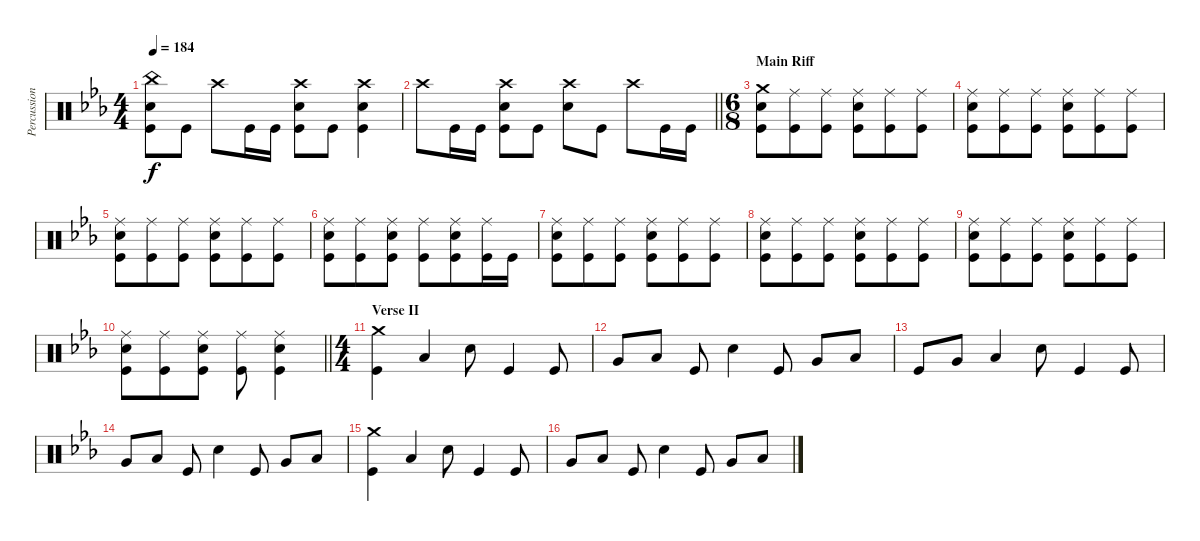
\track ("Percussion" "Percussion") {instrument percussion}
\staff {score}
\articulation defaults
\ts (4 4)
\tempo 184
\clef neutral
\ks eb
("China (hit)" "Electric Snare (hit)" "Kick (hit)").8{dy f} "Kick (hit)".8 "Crash high (hit)".8 "Kick (hit)".16 "Kick (hit)".16 ("Crash high (hit)" "Electric Snare (hit)" "Kick (hit)").8 "Kick (hit)".8 ("Crash high (hit)" "Electric Snare (hit)" "Kick (hit)").4 |
\barLineRight lightlight "Crash high (hit)".8 "Kick (hit)".16 "Kick (hit)".16
("Crash high (hit)" "Electric Snare (hit)" "Kick (hit)").8 "Kick (hit)".8 ("Crash high (hit)" "Electric Snare (hit)").8 "Kick (hit)".8 "Crash high (hit)".8 "Kick (hit)".16 "Kick (hit)".16 |
\ts (6 8)
\section ("" "Main Riff")
("Crash medium (hit)" "Electric Snare (hit)" "Kick (hit)").8 ("Ride (middle)" "Kick (hit)").8 ("Ride (middle)" "Kick (hit)").8 ("Ride (middle)" "Electric Snare (hit)" "Kick (hit)").8 ("Ride (middle)" "Kick (hit)").8 ("Ride (middle)" "Kick (hit)").8 |
("Ride (middle)" "Electric Snare (hit)" "Kick (hit)").8 ("Ride (middle)" "Kick (hit)").8 ("Ride (middle)" "Kick (hit)").8 ("Ride (middle)" "Electric Snare (hit)" "Kick (hit)").8 ("Ride (middle)" "Kick (hit)").8 ("Ride (middle)" "Kick (hit)").8 |
("Ride (middle)" "Electric Snare (hit)" "Kick (hit)").8 ("Ride (middle)" "Kick (hit)").8 ("Ride (middle)" "Kick (hit)").8 ("Ride (middle)" "Electric Snare (hit)" "Kick (hit)").8 ("Ride (middle)" "Kick (hit)").8 ("Ride (middle)" "Kick (hit)").8 |
("Ride (middle)" "Electric Snare (hit)" "Kick (hit)").8 ("Ride (middle)" "Kick (hit)").8 ("Ride (middle)" "Electric Snare (hit)" "Kick (hit)").8 ("Ride (middle)" "Kick (hit)").8 ("Ride (middle)" "Electric Snare (hit)" "Kick (hit)").8 ("Ride (middle)" "Kick (hit)").16 "Kick (hit)".16 |
("Ride (middle)" "Electric Snare (hit)" "Kick (hit)").8 ("Ride (middle)" "Kick (hit)").8 ("Ride (middle)" "Kick (hit)").8 ("Ride (middle)" "Electric Snare (hit)" "Kick (hit)").8 ("Ride (middle)" "Kick (hit)").8 ("Ride (middle)" "Kick (hit)").8 |
("Ride (middle)" "Electric Snare (hit)" "Kick (hit)").8 ("Ride (middle)" "Kick (hit)").8 ("Ride (middle)" "Kick (hit)").8 ("Ride (middle)" "Electric Snare (hit)" "Kick (hit)").8 ("Ride (middle)" "Kick (hit)").8 ("Ride (middle)" "Kick (hit)").8 |
("Ride (middle)" "Electric Snare (hit)" "Kick (hit)").8 ("Ride (middle)" "Kick (hit)").8 ("Ride (middle)" "Kick (hit)").8 ("Ride (middle)" "Electric Snare (hit)" "Kick (hit)").8 ("Ride (middle)" "Kick (hit)").8 ("Ride (middle)" "Kick (hit)").8 |
\barLineRight lightlight
("Ride (middle)" "Electric Snare (hit)" "Kick (hit)").8 ("Ride (middle)" "Kick (hit)").8 ("Ride (middle)" "Electric Snare (hit)" "Kick (hit)").8 ("Ride (middle)" "Kick (hit)").8 ("Ride (middle)" "Electric Snare (hit)" "Kick (hit)").4 |
\ts (4 4)
\section ("" "Verse II")
("Crash medium (hit)" "Kick (hit)").4 "Low Floor Tom (hit)".4 "Electric Snare (hit)".8 "Kick (hit)".4 "Kick (hit)".8 |
"Very Low Tom (hit)".8 "Low Floor Tom (hit)".8 "Kick (hit)".8 "Electric Snare (hit)".4 "Kick (hit)".8 "Very Low Tom (hit)".8 "Low Floor Tom (hit)".8 |
"Kick (hit)".8 "Very Low Tom (hit)".8 "Low Floor Tom (hit)".4 "Electric Snare (hit)".8 "Kick (hit)".4 "Kick (hit)".8 |
"Very Low Tom (hit)".8 "Low Floor Tom (hit)".8 "Kick (hit)".8 "Electric Snare (hit)".4 "Kick (hit)".8 "Very Low Tom (hit)".8 "Low Floor Tom (hit)".8 |
("Crash medium (hit)" "Kick (hit)").4 "Low Floor Tom (hit)".4 "Electric Snare (hit)".8 "Kick (hit)".4 "Kick (hit)".8 |
"Very Low Tom (hit)".8 "Low Floor Tom (hit)".8 "Kick (hit)".8 "Electric Snare (hit)".4 "Kick (hit)".8 "Very Low Tom (hit)".8 "Low Floor Tom (hit)".8
